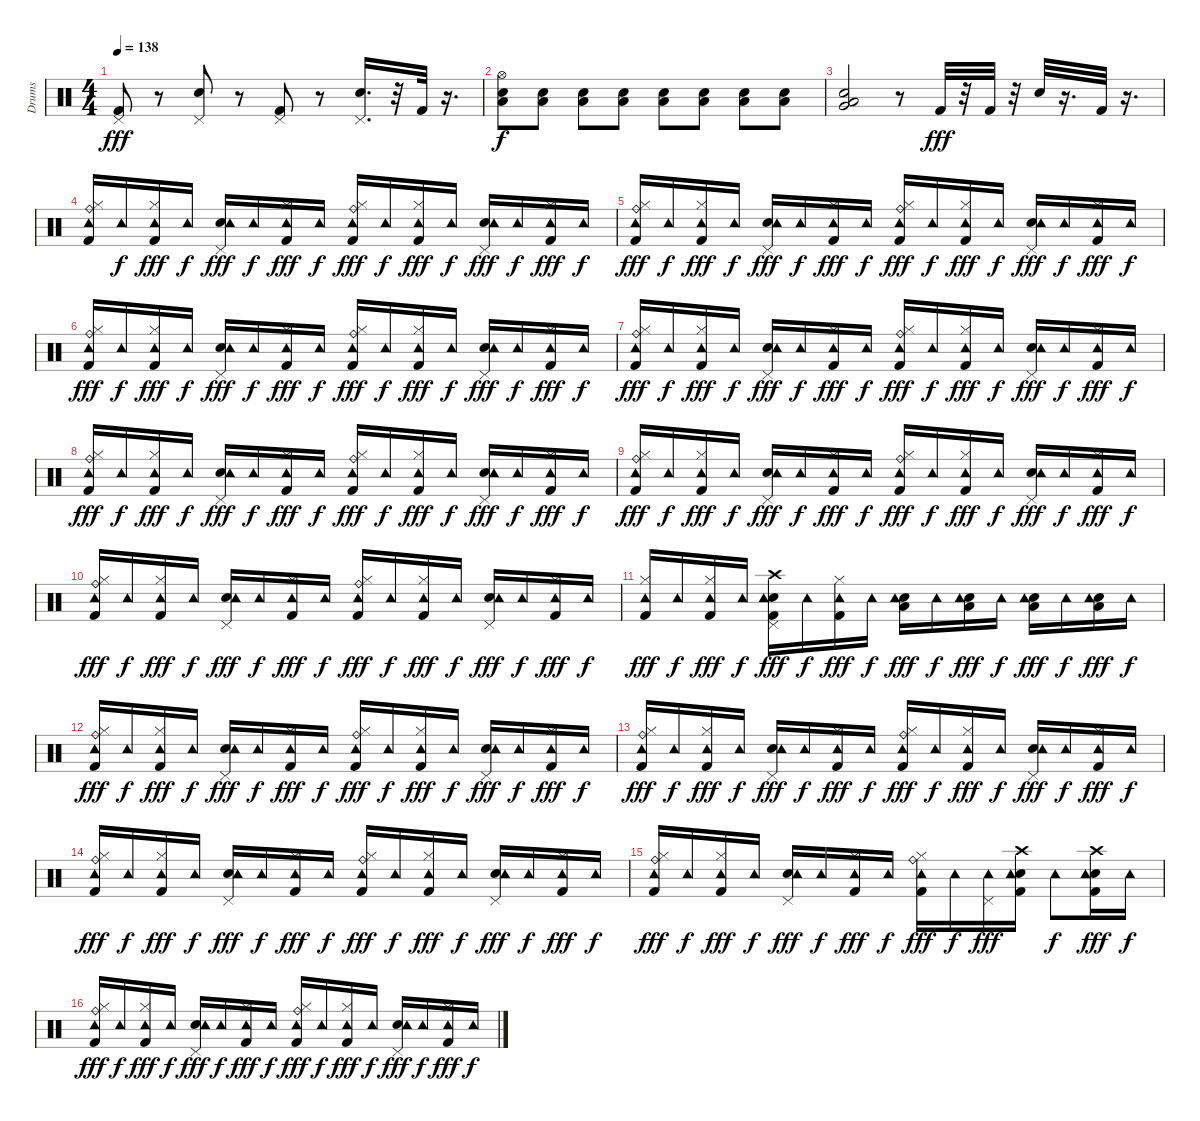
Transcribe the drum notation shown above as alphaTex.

\track ("Drums" "Drums") {instrument percussion}
\staff {score}
\articulation defaults
\ts (4 4)
\tempo 138
\clef neutral
\ks c
("Kick (hit) 2" "Pedal Hi-Hat (hit)").8{dy fff} r.8 ("Snare (hit) 2" "Pedal Hi-Hat (hit)").8 r.8 ("Kick (hit) 2" "Pedal Hi-Hat (hit)").8 r.8 ("Snare (hit) 2" "Pedal Hi-Hat (hit)").16{d} r.32 "Kick (hit) 2".32 r.16{d} |
("Snare (hit) 2" "Low Floor Tom (hit)" "Hi-Hat (open)").8{dy f} ("Snare (hit) 2" "Low Floor Tom (hit)").8 ("Snare (hit) 2" "Low Floor Tom (hit)").8 ("Snare (hit) 2" "Low Floor Tom (hit)").8 ("Snare (hit) 2" "Low Floor Tom (hit)").8 ("Snare (hit) 2" "Low Floor Tom (hit)").8 ("Snare (hit) 2" "Low Floor Tom (hit)").8 ("Snare (hit) 2" "Low Floor Tom (hit)").8 |
("Snare (hit) 2" "Low Floor Tom (hit)" "Very Low Tom (hit)").2 r.8 "Kick (hit) 2".32{dy fff} r.32 "Kick (hit) 2".32 r.32 "Snare (hit) 2".32 r.16{d} "Kick (hit) 2".32 r.16{d} |
("Kick (hit) 2" "Hi-Hat (closed)" "Ride (bell)" "Tambourine (hit)").16 "Tambourine (hit)".16{dy f} ("Kick (hit) 2" "Hi-Hat (closed)" "Tambourine (hit)").16{dy fff} "Tambourine (hit)".16{dy f} ("Snare (hit) 2" "Pedal Hi-Hat (hit)" "Tambourine (hit)").16{dy fff} "Tambourine (hit)".16{dy f} ("Kick (hit) 2" "Hi-Hat (closed)" "Tambourine (hit)").16{dy fff} "Tambourine (hit)".16{dy f} ("Kick (hit) 2" "Hi-Hat (closed)" "Ride (bell)" "Tambourine (hit)").16{dy fff} "Tambourine (hit)".16{dy f} ("Kick (hit) 2" "Hi-Hat (closed)" "Tambourine (hit)").16{dy fff} "Tambourine (hit)".16{dy f} ("Snare (hit) 2" "Pedal Hi-Hat (hit)" "Tambourine (hit)").16{dy fff} "Tambourine (hit)".16{dy f} ("Kick (hit) 2" "Hi-Hat (closed)" "Tambourine (hit)").16{dy fff} "Tambourine (hit)".16{dy f} |
("Kick (hit) 2" "Hi-Hat (closed)" "Ride (bell)" "Tambourine (hit)").16{dy fff} "Tambourine (hit)".16{dy f} ("Kick (hit) 2" "Hi-Hat (closed)" "Tambourine (hit)").16{dy fff} "Tambourine (hit)".16{dy f} ("Snare (hit) 2" "Pedal Hi-Hat (hit)" "Tambourine (hit)").16{dy fff} "Tambourine (hit)".16{dy f} ("Kick (hit) 2" "Hi-Hat (closed)" "Tambourine (hit)").16{dy fff} "Tambourine (hit)".16{dy f} ("Kick (hit) 2" "Hi-Hat (closed)" "Ride (bell)" "Tambourine (hit)").16{dy fff} "Tambourine (hit)".16{dy f} ("Kick (hit) 2" "Hi-Hat (closed)" "Tambourine (hit)").16{dy fff} "Tambourine (hit)".16{dy f} ("Snare (hit) 2" "Pedal Hi-Hat (hit)" "Tambourine (hit)").16{dy fff} "Tambourine (hit)".16{dy f} ("Kick (hit) 2" "Hi-Hat (closed)" "Tambourine (hit)").16{dy fff} "Tambourine (hit)".16{dy f} |
("Kick (hit) 2" "Hi-Hat (closed)" "Ride (bell)" "Tambourine (hit)").16{dy fff} "Tambourine (hit)".16{dy f} ("Kick (hit) 2" "Hi-Hat (closed)" "Tambourine (hit)").16{dy fff} "Tambourine (hit)".16{dy f} ("Snare (hit) 2" "Pedal Hi-Hat (hit)" "Tambourine (hit)").16{dy fff} "Tambourine (hit)".16{dy f} ("Kick (hit) 2" "Hi-Hat (closed)" "Tambourine (hit)").16{dy fff} "Tambourine (hit)".16{dy f} ("Kick (hit) 2" "Hi-Hat (closed)" "Ride (bell)" "Tambourine (hit)").16{dy fff} "Tambourine (hit)".16{dy f} ("Kick (hit) 2" "Hi-Hat (closed)" "Tambourine (hit)").16{dy fff} "Tambourine (hit)".16{dy f} ("Snare (hit) 2" "Pedal Hi-Hat (hit)" "Tambourine (hit)").16{dy fff} "Tambourine (hit)".16{dy f} ("Kick (hit) 2" "Hi-Hat (closed)" "Tambourine (hit)").16{dy fff} "Tambourine (hit)".16{dy f} |
("Kick (hit) 2" "Hi-Hat (closed)" "Ride (bell)" "Tambourine (hit)").16{dy fff} "Tambourine (hit)".16{dy f} ("Kick (hit) 2" "Hi-Hat (closed)" "Tambourine (hit)").16{dy fff} "Tambourine (hit)".16{dy f} ("Snare (hit) 2" "Pedal Hi-Hat (hit)" "Tambourine (hit)").16{dy fff} "Tambourine (hit)".16{dy f} ("Kick (hit) 2" "Hi-Hat (closed)" "Tambourine (hit)").16{dy fff} "Tambourine (hit)".16{dy f} ("Kick (hit) 2" "Hi-Hat (closed)" "Ride (bell)" "Tambourine (hit)").16{dy fff} "Tambourine (hit)".16{dy f} ("Kick (hit) 2" "Hi-Hat (closed)" "Tambourine (hit)").16{dy fff} "Tambourine (hit)".16{dy f} ("Snare (hit) 2" "Pedal Hi-Hat (hit)" "Tambourine (hit)").16{dy fff} "Tambourine (hit)".16{dy f} ("Kick (hit) 2" "Hi-Hat (closed)" "Tambourine (hit)").16{dy fff} "Tambourine (hit)".16{dy f} |
("Kick (hit) 2" "Hi-Hat (closed)" "Ride (bell)" "Tambourine (hit)").16{dy fff} "Tambourine (hit)".16{dy f} ("Kick (hit) 2" "Hi-Hat (closed)" "Tambourine (hit)").16{dy fff} "Tambourine (hit)".16{dy f} ("Snare (hit) 2" "Pedal Hi-Hat (hit)" "Tambourine (hit)").16{dy fff} "Tambourine (hit)".16{dy f} ("Kick (hit) 2" "Hi-Hat (closed)" "Tambourine (hit)").16{dy fff} "Tambourine (hit)".16{dy f} ("Kick (hit) 2" "Hi-Hat (closed)" "Ride (bell)" "Tambourine (hit)").16{dy fff} "Tambourine (hit)".16{dy f} ("Kick (hit) 2" "Hi-Hat (closed)" "Tambourine (hit)").16{dy fff} "Tambourine (hit)".16{dy f} ("Snare (hit) 2" "Pedal Hi-Hat (hit)" "Tambourine (hit)").16{dy fff} "Tambourine (hit)".16{dy f} ("Kick (hit) 2" "Hi-Hat (closed)" "Tambourine (hit)").16{dy fff} "Tambourine (hit)".16{dy f} |
("Kick (hit) 2" "Hi-Hat (closed)" "Ride (bell)" "Tambourine (hit)").16{dy fff} "Tambourine (hit)".16{dy f} ("Kick (hit) 2" "Hi-Hat (closed)" "Tambourine (hit)").16{dy fff} "Tambourine (hit)".16{dy f} ("Snare (hit) 2" "Pedal Hi-Hat (hit)" "Tambourine (hit)").16{dy fff} "Tambourine (hit)".16{dy f} ("Kick (hit) 2" "Hi-Hat (closed)" "Tambourine (hit)").16{dy fff} "Tambourine (hit)".16{dy f} ("Kick (hit) 2" "Hi-Hat (closed)" "Ride (bell)" "Tambourine (hit)").16{dy fff} "Tambourine (hit)".16{dy f} ("Kick (hit) 2" "Hi-Hat (closed)" "Tambourine (hit)").16{dy fff} "Tambourine (hit)".16{dy f} ("Snare (hit) 2" "Pedal Hi-Hat (hit)" "Tambourine (hit)").16{dy fff} "Tambourine (hit)".16{dy f} ("Kick (hit) 2" "Hi-Hat (closed)" "Tambourine (hit)").16{dy fff} "Tambourine (hit)".16{dy f} |
("Kick (hit) 2" "Hi-Hat (closed)" "Ride (bell)" "Tambourine (hit)").16{dy fff} "Tambourine (hit)".16{dy f} ("Kick (hit) 2" "Hi-Hat (closed)" "Tambourine (hit)").16{dy fff} "Tambourine (hit)".16{dy f} ("Snare (hit) 2" "Pedal Hi-Hat (hit)" "Tambourine (hit)").16{dy fff} "Tambourine (hit)".16{dy f} ("Kick (hit) 2" "Hi-Hat (closed)" "Tambourine (hit)").16{dy fff} "Tambourine (hit)".16{dy f} ("Kick (hit) 2" "Hi-Hat (closed)" "Ride (bell)" "Tambourine (hit)").16{dy fff} "Tambourine (hit)".16{dy f} ("Kick (hit) 2" "Hi-Hat (closed)" "Tambourine (hit)").16{dy fff} "Tambourine (hit)".16{dy f} ("Snare (hit) 2" "Pedal Hi-Hat (hit)" "Tambourine (hit)").16{dy fff} "Tambourine (hit)".16{dy f} ("Kick (hit) 2" "Hi-Hat (closed)" "Tambourine (hit)").16{dy fff} "Tambourine (hit)".16{dy f} |
("Kick (hit) 2" "Hi-Hat (closed)" "Tambourine (hit)").16{dy fff} "Tambourine (hit)".16{dy f} ("Kick (hit) 2" "Hi-Hat (closed)" "Tambourine (hit)").16{dy fff} "Tambourine (hit)".16{dy f} ("Kick (hit) 2" "Snare (hit) 2" "Pedal Hi-Hat (hit)" "Crash high (hit)" "Tambourine (hit)").16{dy fff} "Tambourine (hit)".16{dy f} ("Kick (hit) 2" "Hi-Hat (closed)" "Tambourine (hit)").16{dy fff} "Tambourine (hit)".16{dy f} ("Snare (hit) 2" "Low Floor Tom (hit)" "Tambourine (hit)").16{dy fff} "Tambourine (hit)".16{dy f} ("Snare (hit) 2" "Low Floor Tom (hit)" "Tambourine (hit)").16{dy fff} "Tambourine (hit)".16{dy f} ("Snare (hit) 2" "Low Floor Tom (hit)" "Tambourine (hit)").16{dy fff} "Tambourine (hit)".16{dy f} ("Snare (hit) 2" "Low Floor Tom (hit)" "Tambourine (hit)").16{dy fff} "Tambourine (hit)".16{dy f} |
("Kick (hit) 2" "Hi-Hat (closed)" "Ride (bell)" "Tambourine (hit)").16{dy fff} "Tambourine (hit)".16{dy f} ("Kick (hit) 2" "Hi-Hat (closed)" "Tambourine (hit)").16{dy fff} "Tambourine (hit)".16{dy f} ("Snare (hit) 2" "Pedal Hi-Hat (hit)" "Tambourine (hit)").16{dy fff} "Tambourine (hit)".16{dy f} ("Kick (hit) 2" "Hi-Hat (closed)" "Tambourine (hit)").16{dy fff} "Tambourine (hit)".16{dy f} ("Kick (hit) 2" "Hi-Hat (closed)" "Ride (bell)" "Tambourine (hit)").16{dy fff} "Tambourine (hit)".16{dy f} ("Kick (hit) 2" "Hi-Hat (closed)" "Tambourine (hit)").16{dy fff} "Tambourine (hit)".16{dy f} ("Snare (hit) 2" "Pedal Hi-Hat (hit)" "Tambourine (hit)").16{dy fff} "Tambourine (hit)".16{dy f} ("Kick (hit) 2" "Hi-Hat (closed)" "Tambourine (hit)").16{dy fff} "Tambourine (hit)".16{dy f} |
("Kick (hit) 2" "Hi-Hat (closed)" "Ride (bell)" "Tambourine (hit)").16{dy fff} "Tambourine (hit)".16{dy f} ("Kick (hit) 2" "Hi-Hat (closed)" "Tambourine (hit)").16{dy fff} "Tambourine (hit)".16{dy f} ("Snare (hit) 2" "Pedal Hi-Hat (hit)" "Tambourine (hit)").16{dy fff} "Tambourine (hit)".16{dy f} ("Kick (hit) 2" "Hi-Hat (closed)" "Tambourine (hit)").16{dy fff} "Tambourine (hit)".16{dy f} ("Kick (hit) 2" "Hi-Hat (closed)" "Ride (bell)" "Tambourine (hit)").16{dy fff} "Tambourine (hit)".16{dy f} ("Kick (hit) 2" "Hi-Hat (closed)" "Tambourine (hit)").16{dy fff} "Tambourine (hit)".16{dy f} ("Snare (hit) 2" "Pedal Hi-Hat (hit)" "Tambourine (hit)").16{dy fff} "Tambourine (hit)".16{dy f} ("Kick (hit) 2" "Hi-Hat (closed)" "Tambourine (hit)").16{dy fff} "Tambourine (hit)".16{dy f} |
("Kick (hit) 2" "Hi-Hat (closed)" "Ride (bell)" "Tambourine (hit)").16{dy fff} "Tambourine (hit)".16{dy f} ("Kick (hit) 2" "Hi-Hat (closed)" "Tambourine (hit)").16{dy fff} "Tambourine (hit)".16{dy f} ("Snare (hit) 2" "Pedal Hi-Hat (hit)" "Tambourine (hit)").16{dy fff} "Tambourine (hit)".16{dy f} ("Kick (hit) 2" "Hi-Hat (closed)" "Tambourine (hit)").16{dy fff} "Tambourine (hit)".16{dy f} ("Kick (hit) 2" "Hi-Hat (closed)" "Ride (bell)" "Tambourine (hit)").16{dy fff} "Tambourine (hit)".16{dy f} ("Kick (hit) 2" "Hi-Hat (closed)" "Tambourine (hit)").16{dy fff} "Tambourine (hit)".16{dy f} ("Snare (hit) 2" "Pedal Hi-Hat (hit)" "Tambourine (hit)").16{dy fff} "Tambourine (hit)".16{dy f} ("Kick (hit) 2" "Hi-Hat (closed)" "Tambourine (hit)").16{dy fff} "Tambourine (hit)".16{dy f} |
("Kick (hit) 2" "Hi-Hat (closed)" "Ride (bell)" "Tambourine (hit)").16{dy fff} "Tambourine (hit)".16{dy f} ("Kick (hit) 2" "Hi-Hat (closed)" "Tambourine (hit)").16{dy fff} "Tambourine (hit)".16{dy f} ("Snare (hit) 2" "Pedal Hi-Hat (hit)" "Tambourine (hit)").16{dy fff} "Tambourine (hit)".16{dy f} ("Kick (hit) 2" "Hi-Hat (closed)" "Tambourine (hit)").16{dy fff} "Tambourine (hit)".16{dy f} ("Kick (hit) 2" "Hi-Hat (closed)" "Ride (bell)" "Tambourine (hit)").16{dy fff} "Tambourine (hit)".16{dy f} ("Pedal Hi-Hat (hit)" "Tambourine (hit)").16{dy fff} ("Kick (hit) 2" "Snare (hit) 2" "Crash high (hit)" "Tambourine (hit)").16 "Tambourine (hit)".8{dy f} ("Kick (hit) 2" "Snare (hit) 2" "Crash high (hit)" "Tambourine (hit)").16{dy fff} "Tambourine (hit)".16{dy f} |
("Kick (hit) 2" "Hi-Hat (closed)" "Ride (bell)" "Tambourine (hit)").16{dy fff} "Tambourine (hit)".16{dy f} ("Kick (hit) 2" "Hi-Hat (closed)" "Tambourine (hit)").16{dy fff} "Tambourine (hit)".16{dy f} ("Snare (hit) 2" "Pedal Hi-Hat (hit)" "Tambourine (hit)").16{dy fff} "Tambourine (hit)".16{dy f} ("Kick (hit) 2" "Hi-Hat (closed)" "Tambourine (hit)").16{dy fff} "Tambourine (hit)".16{dy f} ("Kick (hit) 2" "Hi-Hat (closed)" "Ride (bell)" "Tambourine (hit)").16{dy fff} "Tambourine (hit)".16{dy f} ("Kick (hit) 2" "Hi-Hat (closed)" "Tambourine (hit)").16{dy fff} "Tambourine (hit)".16{dy f} ("Snare (hit) 2" "Pedal Hi-Hat (hit)" "Tambourine (hit)").16{dy fff} "Tambourine (hit)".16{dy f} ("Kick (hit) 2" "Hi-Hat (closed)" "Tambourine (hit)").16{dy fff} "Tambourine (hit)".16{dy f}
